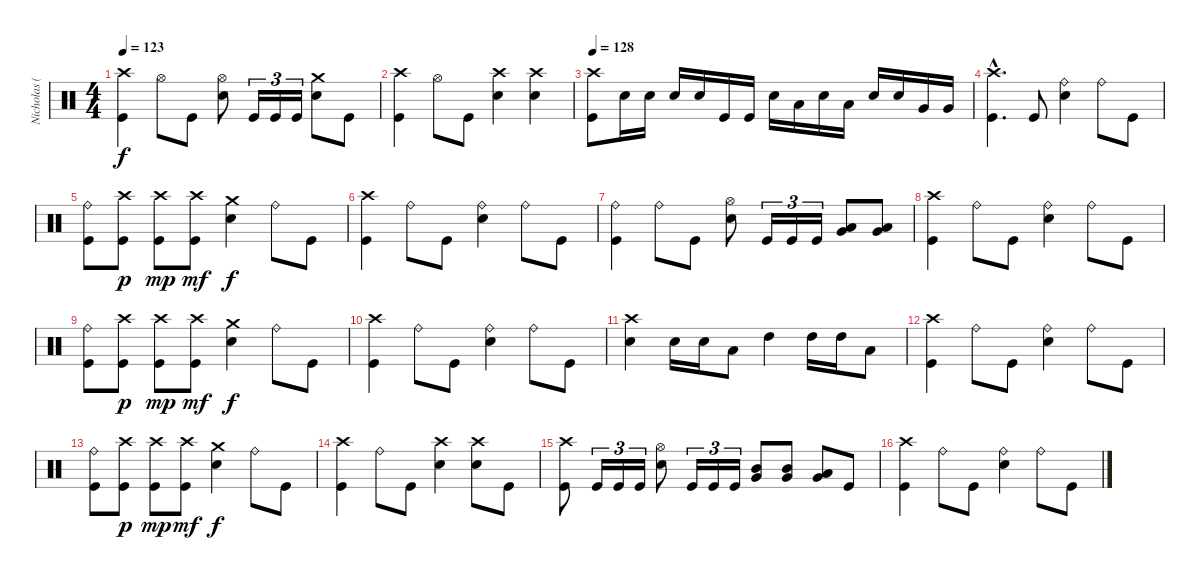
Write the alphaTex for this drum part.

\track ("Nicholas (Drums)" "Nicholas (") {instrument percussion}
\staff {score}
\articulation defaults
\ts (4 4)
\tempo 123
\clef neutral
\ks c
("Crash high (hit)" "Kick (hit)").4{dy f} "Hi-Hat (open)".8 "Kick (hit)".8 ("Hi-Hat (open)" "Electric Snare (hit)").8 "Kick (hit)".16{tu (3 2)} "Kick (hit)".16{tu (3 2)} "Kick (hit)".16{tu (3 2)} ("Crash medium (hit)" "Electric Snare (hit)").8 "Kick (hit)".8 |
("Crash high (hit)" "Kick (hit)").4 "Hi-Hat (open)".8 "Kick (hit)".8 ("Crash high (hit)" "Electric Snare (hit)").4 ("Crash high (hit)" "Electric Snare (hit)").4 |
\tempo 128
("Crash high (hit)" "Kick (hit)").8 "Electric Snare (hit)".16 "Electric Snare (hit)".16 "Electric Snare (hit)".16 "Electric Snare (hit)".16 "Kick (hit)".16 "Kick (hit)".16 "Electric Snare (hit)".16 "Low Tom (hit)".16 "Electric Snare (hit)".16 "Low Tom (hit)".16 "Electric Snare (hit)".16 "Electric Snare (hit)".16 "Very Low Tom (hit)".16 "Very Low Tom (hit)".16 |
("Crash high (hit)"{hac} "Kick (hit)"{hac}).4{d} "Kick (hit)".8 ("Ride (bell)" "Electric Snare (hit)").4 "Ride (bell)".8 "Kick (hit)".8 |
("Ride (bell)" "Kick (hit)").8 ("Crash high (hit)" "Kick (hit)").8{dy p} ("Crash high (hit)" "Kick (hit)").8{dy mp} ("Crash high (hit)" "Kick (hit)").8{dy mf} ("Crash medium (hit)" "Electric Snare (hit)").4{dy f} "Ride (bell)".8 "Kick (hit)".8 |
("Crash high (hit)" "Kick (hit)").4 "Ride (bell)".8 "Kick (hit)".8 ("Ride (bell)" "Electric Snare (hit)").4 "Ride (bell)".8 "Kick (hit)".8 |
("Ride (bell)" "Kick (hit)").4 "Ride (bell)".8 "Kick (hit)".8 ("Hi-Hat (open)" "Electric Snare (hit)").8 "Kick (hit)".16{tu (3 2)} "Kick (hit)".16{tu (3 2)} "Kick (hit)".16{tu (3 2)} ("Low Tom (hit)" "Very Low Tom (hit)").8{bu 60} ("Low Tom (hit)" "Very Low Tom (hit)").8{bu 60} |
("Crash high (hit)" "Kick (hit)").4 "Ride (bell)".8 "Kick (hit)".8 ("Ride (bell)" "Electric Snare (hit)").4 "Ride (bell)".8 "Kick (hit)".8 |
("Ride (bell)" "Kick (hit)").8 ("Crash high (hit)" "Kick (hit)").8{dy p} ("Crash high (hit)" "Kick (hit)").8{dy mp} ("Crash high (hit)" "Kick (hit)").8{dy mf} ("Crash medium (hit)" "Electric Snare (hit)").4{dy f} "Ride (bell)".8 "Kick (hit)".8 |
("Crash high (hit)" "Kick (hit)").4 "Ride (bell)".8 "Kick (hit)".8 ("Ride (bell)" "Electric Snare (hit)").4 "Ride (bell)".8 "Kick (hit)".8 |
("Crash high (hit)" "Electric Snare (hit)").4 "Electric Snare (hit)".16 "Electric Snare (hit)".16 "Low Tom (hit)".8 "High Tom (hit)".4 "High Tom (hit)".16 "High Tom (hit)".16 "Low Tom (hit)".8 |
("Crash high (hit)" "Kick (hit)").4 "Ride (bell)".8 "Kick (hit)".8 ("Ride (bell)" "Electric Snare (hit)").4 "Ride (bell)".8 "Kick (hit)".8 |
("Ride (bell)" "Kick (hit)").8 ("Crash high (hit)" "Kick (hit)").8{dy p} ("Crash high (hit)" "Kick (hit)").8{dy mp} ("Crash high (hit)" "Kick (hit)").8{dy mf} ("Crash medium (hit)" "Electric Snare (hit)").4{dy f} "Ride (bell)".8 "Kick (hit)".8 |
("Crash high (hit)" "Kick (hit)").4 "Ride (bell)".8 "Kick (hit)".8 ("Crash high (hit)" "Electric Snare (hit)").4 ("Crash high (hit)" "Electric Snare (hit)").8 "Kick (hit)".8 |
("Crash high (hit)" "Kick (hit)").8 "Kick (hit)".16{tu (3 2)} "Kick (hit)".16{tu (3 2)} "Kick (hit)".16{tu (3 2)} ("Hi-Hat (open)" "Electric Snare (hit)").8 "Kick (hit)".16{tu (3 2)} "Kick (hit)".16{tu (3 2)} "Kick (hit)".16{tu (3 2)} ("Mid Tom (hit)" "Very Low Tom (hit)").8{bd 60} ("Mid Tom (hit)" "Very Low Tom (hit)").8{bd 60} ("Low Tom (hit)" "Very Low Tom (hit)").8{bd 60} "Kick (hit)".8 |
("Crash high (hit)" "Kick (hit)").4 "Ride (bell)".8 "Kick (hit)".8 ("Ride (bell)" "Electric Snare (hit)").4 "Ride (bell)".8 "Kick (hit)".8
